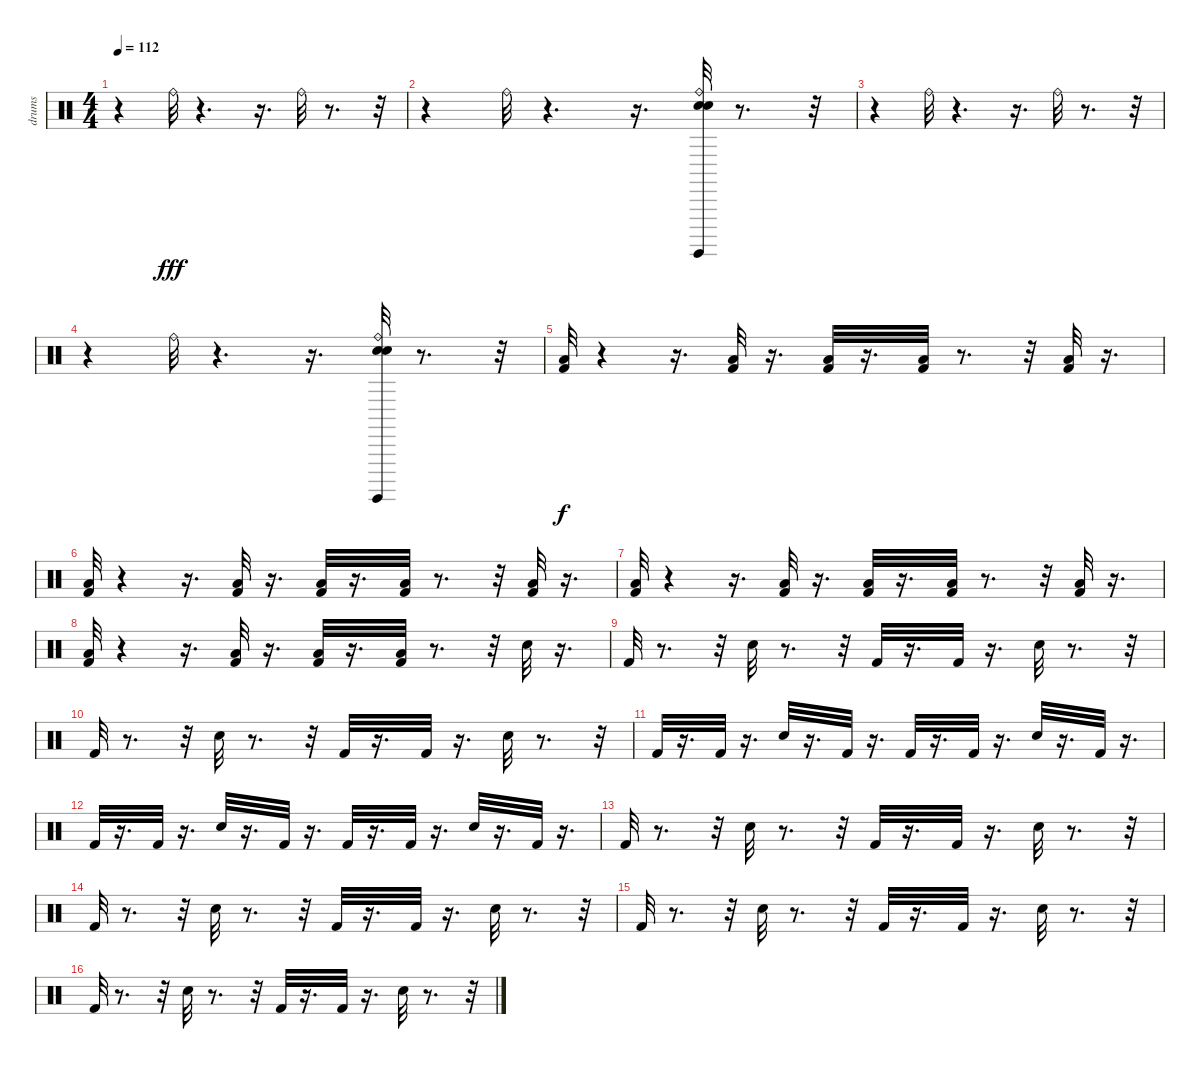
\track ("drums" "drums") {instrument percussion}
\staff {score}
\articulation defaults
\ts (4 4)
\tempo 112
\clef neutral
\ks c
r.4{dy fff} "Ride (bell)".32 r.4{d} r.16{d} "Ride (bell)".32 r.8{d} r.32 |
r.4 "Ride (bell)".32 r.4{d} r.16{d} ("Ride (bell)" "Snare (hit) 2" "Electric Snare (hit)" "Surdo (hit)").32 r.8{d} r.32 |
r.4 "Ride (bell)".32 r.4{d} r.16{d} "Ride (bell)".32 r.8{d} r.32 |
r.4 "Ride (bell)".32 r.4{d} r.16{d} ("Ride (bell)" "Snare (hit) 2" "Electric Snare (hit)" "Surdo (hit)").32 r.8{d} r.32 |
("Low Floor Tom (hit)" "Kick (hit) 2").32{dy f} r.4 r.16{d} ("Kick (hit) 2" "Low Floor Tom (hit)").32 r.16{d} ("Kick (hit) 2" "Low Floor Tom (hit)").32 r.16{d} ("Low Floor Tom (hit)" "Kick (hit) 2").32 r.8{d} r.32 ("Low Floor Tom (hit)" "Kick (hit) 2").32 r.16{d} |
("Low Floor Tom (hit)" "Kick (hit) 2").32 r.4 r.16{d} ("Kick (hit) 2" "Low Floor Tom (hit)").32 r.16{d} ("Kick (hit) 2" "Low Floor Tom (hit)").32 r.16{d} ("Low Floor Tom (hit)" "Kick (hit) 2").32 r.8{d} r.32 ("Low Floor Tom (hit)" "Kick (hit) 2").32 r.16{d} |
("Low Floor Tom (hit)" "Kick (hit) 2").32 r.4 r.16{d} ("Kick (hit) 2" "Low Floor Tom (hit)").32 r.16{d} ("Kick (hit) 2" "Low Floor Tom (hit)").32 r.16{d} ("Low Floor Tom (hit)" "Kick (hit) 2").32 r.8{d} r.32 ("Low Floor Tom (hit)" "Kick (hit) 2").32 r.16{d} |
("Low Floor Tom (hit)" "Kick (hit) 2").32 r.4 r.16{d} ("Kick (hit) 2" "Low Floor Tom (hit)").32 r.16{d} ("Kick (hit) 2" "Low Floor Tom (hit)").32 r.16{d} ("Low Floor Tom (hit)" "Kick (hit) 2").32 r.8{d} r.32 "Snare (hit) 2".32 r.16{d} |
"Kick (hit) 2".32 r.8{d} r.32 "Snare (hit) 2".32 r.8{d} r.32 "Kick (hit) 2".32 r.16{d} "Kick (hit) 2".32 r.16{d} "Snare (hit) 2".32 r.8{d} r.32 |
"Kick (hit) 2".32 r.8{d} r.32 "Snare (hit) 2".32 r.8{d} r.32 "Kick (hit) 2".32 r.16{d} "Kick (hit) 2".32 r.16{d} "Snare (hit) 2".32 r.8{d} r.32 |
"Kick (hit) 2".32 r.16{d} "Kick (hit) 2".32 r.16{d} "Snare (hit) 2".32 r.16{d} "Kick (hit) 2".32 r.16{d} "Kick (hit) 2".32 r.16{d} "Kick (hit) 2".32 r.16{d} "Snare (hit) 2".32 r.16{d} "Kick (hit) 2".32 r.16{d} |
"Kick (hit) 2".32 r.16{d} "Kick (hit) 2".32 r.16{d} "Snare (hit) 2".32 r.16{d} "Kick (hit) 2".32 r.16{d} "Kick (hit) 2".32 r.16{d} "Kick (hit) 2".32 r.16{d} "Snare (hit) 2".32 r.16{d} "Kick (hit) 2".32 r.16{d} |
"Kick (hit) 2".32 r.8{d} r.32 "Snare (hit) 2".32 r.8{d} r.32 "Kick (hit) 2".32 r.16{d} "Kick (hit) 2".32 r.16{d} "Snare (hit) 2".32 r.8{d} r.32 |
"Kick (hit) 2".32 r.8{d} r.32 "Snare (hit) 2".32 r.8{d} r.32 "Kick (hit) 2".32 r.16{d} "Kick (hit) 2".32 r.16{d} "Snare (hit) 2".32 r.8{d} r.32 |
"Kick (hit) 2".32 r.8{d} r.32 "Snare (hit) 2".32 r.8{d} r.32 "Kick (hit) 2".32 r.16{d} "Kick (hit) 2".32 r.16{d} "Snare (hit) 2".32 r.8{d} r.32 |
"Kick (hit) 2".32 r.8{d} r.32 "Snare (hit) 2".32 r.8{d} r.32 "Kick (hit) 2".32 r.16{d} "Kick (hit) 2".32 r.16{d} "Snare (hit) 2".32 r.8{d} r.32
